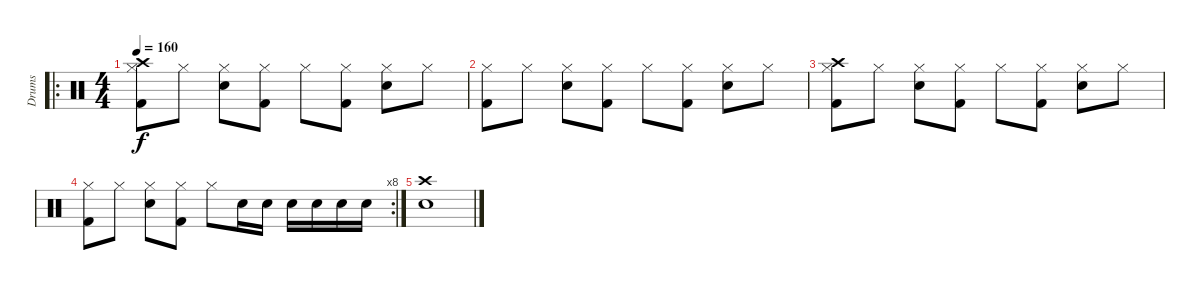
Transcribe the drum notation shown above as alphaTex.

\track ("Drums" "Drums") {instrument percussion}
\staff {score}
\articulation defaults
\ro
\ts (4 4)
\tempo 160
\clef neutral
\ks c
("Crash high (hit)" "Hi-Hat (closed)" "Kick (hit) 2").8{dy f} "Hi-Hat (closed)".8 ("Hi-Hat (closed)" "Snare (hit) 2").8 ("Hi-Hat (closed)" "Kick (hit) 2").8 "Hi-Hat (closed)".8 ("Hi-Hat (closed)" "Kick (hit) 2").8 ("Hi-Hat (closed)" "Snare (hit) 2").8 "Hi-Hat (closed)".8 |
("Hi-Hat (closed)" "Kick (hit) 2").8 "Hi-Hat (closed)".8 ("Hi-Hat (closed)" "Snare (hit) 2").8 ("Hi-Hat (closed)" "Kick (hit) 2").8 "Hi-Hat (closed)".8 ("Hi-Hat (closed)" "Kick (hit) 2").8 ("Hi-Hat (closed)" "Snare (hit) 2").8 "Hi-Hat (closed)".8 |
("Crash high (hit)" "Hi-Hat (closed)" "Kick (hit) 2").8 "Hi-Hat (closed)".8 ("Hi-Hat (closed)" "Snare (hit) 2").8 ("Hi-Hat (closed)" "Kick (hit) 2").8 "Hi-Hat (closed)".8 ("Hi-Hat (closed)" "Kick (hit) 2").8 ("Hi-Hat (closed)" "Snare (hit) 2").8 "Hi-Hat (closed)".8 |
\rc 8
("Hi-Hat (closed)" "Kick (hit) 2").8 "Hi-Hat (closed)".8 ("Hi-Hat (closed)" "Snare (hit) 2").8 ("Hi-Hat (closed)" "Kick (hit) 2").8 "Hi-Hat (closed)".8 "Snare (hit) 2".16 "Snare (hit) 2".16 "Snare (hit) 2".16 "Snare (hit) 2".16 "Snare (hit) 2".16 "Snare (hit) 2".16 |
("Crash high (hit)" "Snare (hit) 2").1
